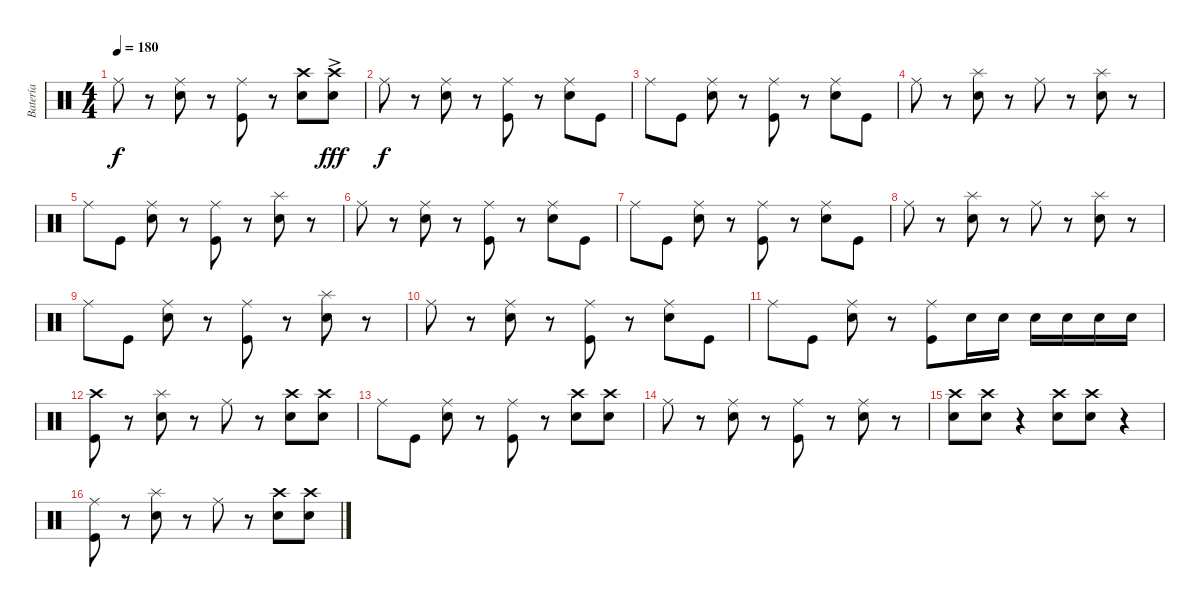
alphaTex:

\track ("Batería" "Batería") {instrument percussion}
\staff {score}
\articulation defaults
\ts (4 4)
\tempo 180
\clef neutral
\ks c "Ride (middle)".8{dy f}
r.8 ("Electric Snare (hit)" "Ride (middle)").8 r.8 ("Kick (hit)" "Ride (middle)").8 r.8 ("Electric Snare (hit)" "Crash high (hit)").8 ("Electric Snare (hit)"{ac} "Crash high (hit)"{ac}).8{dy fff} |
"Ride (middle)".8{dy f} r.8 ("Electric Snare (hit)" "Ride (middle)").8 r.8 ("Kick (hit)" "Ride (middle)").8 r.8 ("Electric Snare (hit)" "Ride (middle)").8 "Kick (hit)".8 |
"Ride (middle)".8 "Kick (hit)".8 ("Electric Snare (hit)" "Ride (middle)").8 r.8 ("Kick (hit)" "Ride (middle)").8 r.8 ("Electric Snare (hit)" "Ride (middle)").8 "Kick (hit)".8 |
"Ride (middle)".8 r.8 ("Electric Snare (hit)" "Splash (hit)").8 r.8 "Ride (middle)".8 r.8 ("Electric Snare (hit)" "Splash (hit)").8 r.8 |
"Ride (middle)".8 "Kick (hit)".8 ("Electric Snare (hit)" "Ride (middle)").8 r.8 ("Kick (hit)" "Ride (middle)").8 r.8 ("Electric Snare (hit)" "Splash (hit)").8 r.8 |
"Ride (middle)".8 r.8 ("Electric Snare (hit)" "Ride (middle)").8 r.8 ("Kick (hit)" "Ride (middle)").8 r.8 ("Electric Snare (hit)" "Ride (middle)").8 "Kick (hit)".8 |
"Ride (middle)".8 "Kick (hit)".8 ("Electric Snare (hit)" "Ride (middle)").8 r.8 ("Kick (hit)" "Ride (middle)").8 r.8 ("Electric Snare (hit)" "Ride (middle)").8 "Kick (hit)".8 |
"Ride (middle)".8 r.8 ("Electric Snare (hit)" "Splash (hit)").8 r.8 "Ride (middle)".8 r.8 ("Electric Snare (hit)" "Splash (hit)").8 r.8 |
"Ride (middle)".8 "Kick (hit)".8 ("Electric Snare (hit)" "Ride (middle)").8 r.8 ("Kick (hit)" "Ride (middle)").8 r.8 ("Electric Snare (hit)" "Splash (hit)").8 r.8 |
"Ride (middle)".8 r.8 ("Electric Snare (hit)" "Ride (middle)").8 r.8 ("Kick (hit)" "Ride (middle)").8 r.8 ("Electric Snare (hit)" "Ride (middle)").8 "Kick (hit)".8 |
"Ride (middle)".8 "Kick (hit)".8 ("Electric Snare (hit)" "Ride (middle)").8 r.8 ("Kick (hit)" "Ride (middle)").8 "Electric Snare (hit)".16 "Electric Snare (hit)".16 "Electric Snare (hit)".16 "Electric Snare (hit)".16 "Electric Snare (hit)".16 "Electric Snare (hit)".16 |
("Kick (hit)" "Crash high (hit)").8 r.8 ("Electric Snare (hit)" "Splash (hit)").8 r.8 "Ride (middle)".8 r.8 ("Electric Snare (hit)" "Crash high (hit)").8 ("Electric Snare (hit)" "Crash high (hit)").8 |
"Ride (middle)".8 "Kick (hit)".8 ("Electric Snare (hit)" "Ride (middle)").8 r.8 ("Kick (hit)" "Ride (middle)").8 r.8 ("Electric Snare (hit)" "Crash high (hit)").8 ("Electric Snare (hit)" "Crash high (hit)").8 |
"Ride (middle)".8 r.8 ("Electric Snare (hit)" "Ride (middle)").8 r.8 ("Kick (hit)" "Ride (middle)").8 r.8 ("Electric Snare (hit)" "Ride (middle)").8 r.8 |
("Crash high (hit)" "Electric Snare (hit)").8 ("Crash high (hit)" "Electric Snare (hit)").8 r.4 ("Crash high (hit)" "Electric Snare (hit)").8 ("Crash high (hit)" "Electric Snare (hit)").8 r.4 |
("Kick (hit)" "Ride (middle)").8 r.8 ("Electric Snare (hit)" "Splash (hit)").8 r.8 "Ride (middle)".8 r.8 ("Electric Snare (hit)" "Crash high (hit)").8 ("Electric Snare (hit)" "Crash high (hit)").8
